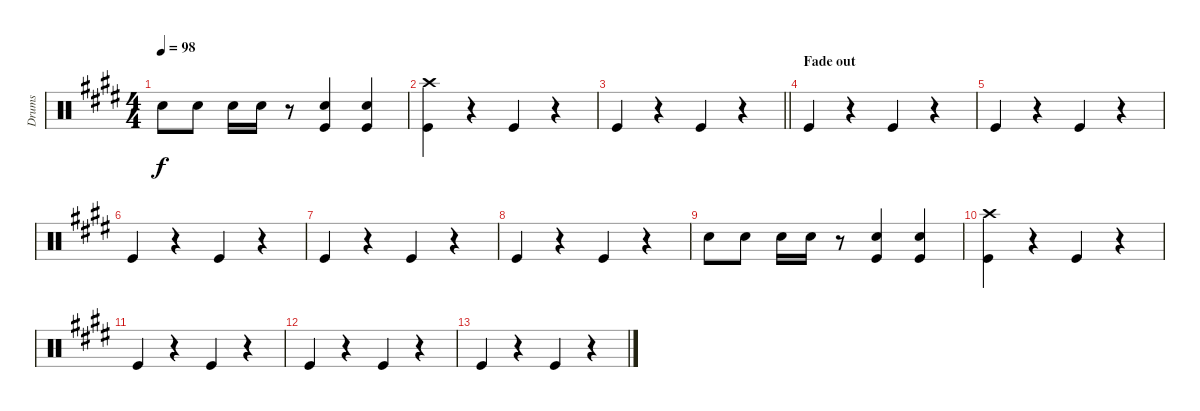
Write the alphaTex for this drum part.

\track ("Drums" "Drums") {instrument percussion}
\staff {score}
\articulation defaults
\ts (4 4)
\tempo 98
\clef neutral
\ks c#minor "Snare (hit) 2".8{dy f} "Snare (hit) 2".8 "Snare (hit) 2".16 "Snare (hit) 2".16
r.8 ("Kick (hit)" "Snare (hit) 2").4 ("Kick (hit)" "Snare (hit) 2").4 |
("Kick (hit)" "Crash high (hit)").4 r.4 "Kick (hit)".4 r.4 |
\barLineRight lightlight "Kick (hit)".4
r.4 "Kick (hit)".4 r.4 |
\section ("" "Fade out")
"Kick (hit)".4 r.4 "Kick (hit)".4 r.4 |
"Kick (hit)".4 r.4 "Kick (hit)".4 r.4 |
"Kick (hit)".4 r.4 "Kick (hit)".4 r.4 |
"Kick (hit)".4 r.4 "Kick (hit)".4 r.4 |
"Kick (hit)".4 r.4 "Kick (hit)".4 r.4 |
"Snare (hit) 2".8 "Snare (hit) 2".8 "Snare (hit) 2".16 "Snare (hit) 2".16 r.8 ("Kick (hit)" "Snare (hit) 2").4 ("Kick (hit)" "Snare (hit) 2").4 |
("Kick (hit)" "Crash high (hit)").4 r.4 "Kick (hit)".4 r.4 |
"Kick (hit)".4 r.4 "Kick (hit)".4 r.4 |
"Kick (hit)".4 r.4 "Kick (hit)".4 r.4 |
"Kick (hit)".4 r.4 "Kick (hit)".4 r.4
